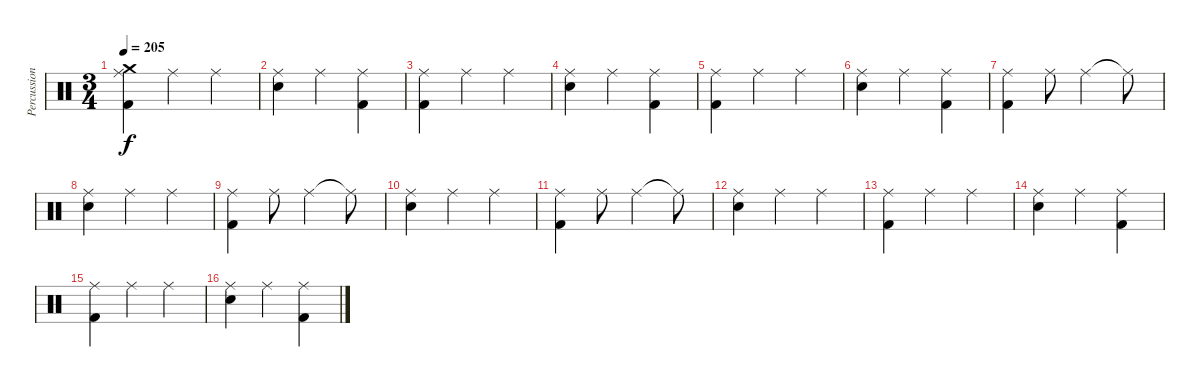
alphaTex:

\track ("Percussion" "Percussion") {instrument percussion}
\staff {score}
\articulation defaults
\ts (3 4)
\tempo 205
\clef neutral
\ks c
("Ride (middle)" "Crash medium (hit)" "Kick (hit) 2").4{dy f} "Ride (middle)".4 "Ride (middle)".4 |
("Ride (middle)" "Electric Snare (hit)").4 "Ride (middle)".4 ("Ride (middle)" "Kick (hit) 2").4 |
("Ride (middle)" "Kick (hit) 2").4 "Ride (middle)".4 "Ride (middle)".4 |
("Ride (middle)" "Electric Snare (hit)").4 "Ride (middle)".4 ("Ride (middle)" "Kick (hit) 2").4 |
("Ride (middle)" "Kick (hit) 2").4 "Ride (middle)".4 "Ride (middle)".4 |
("Ride (middle)" "Electric Snare (hit)").4 "Ride (middle)".4 ("Ride (middle)" "Kick (hit) 2").4 |
("Ride (middle)" "Kick (hit) 2").4 "Ride (middle)".8 "Ride (middle)".4 "Ride (middle)"{t}.8 |
("Ride (middle)" "Electric Snare (hit)").4 "Ride (middle)".4 "Ride (middle)".4 |
("Ride (middle)" "Kick (hit) 2").4 "Ride (middle)".8 "Ride (middle)".4 "Ride (middle)"{t}.8 |
("Ride (middle)" "Electric Snare (hit)").4 "Ride (middle)".4 "Ride (middle)".4 |
("Ride (middle)" "Kick (hit) 2").4 "Ride (middle)".8 "Ride (middle)".4 "Ride (middle)"{t}.8 |
("Ride (middle)" "Electric Snare (hit)").4 "Ride (middle)".4 "Ride (middle)".4 |
("Ride (middle)" "Kick (hit) 2").4 "Ride (middle)".4 "Ride (middle)".4 |
("Ride (middle)" "Electric Snare (hit)").4 "Ride (middle)".4 ("Ride (middle)" "Kick (hit) 2").4 |
("Ride (middle)" "Kick (hit) 2").4 "Ride (middle)".4 "Ride (middle)".4 |
("Ride (middle)" "Electric Snare (hit)").4 "Ride (middle)".4 ("Ride (middle)" "Kick (hit) 2").4
